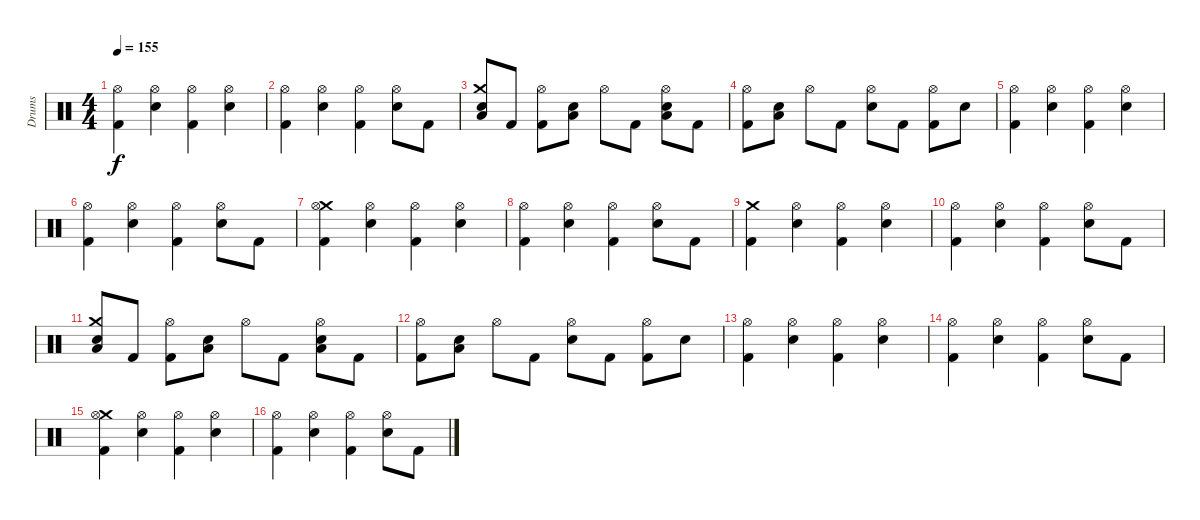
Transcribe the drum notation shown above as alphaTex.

\track ("Drums" "Drums") {instrument percussion}
\staff {score}
\articulation defaults
\ts (4 4)
\tempo 155
\clef neutral
\ks c
("Hi-Hat (open)" "Kick (hit) 2").4{dy f} ("Hi-Hat (open)" "Snare (hit) 2").4 ("Hi-Hat (open)" "Kick (hit) 2").4 ("Hi-Hat (open)" "Snare (hit) 2").4 |
("Hi-Hat (open)" "Kick (hit) 2").4 ("Hi-Hat (open)" "Snare (hit) 2").4 ("Hi-Hat (open)" "Kick (hit) 2").4 ("Hi-Hat (open)" "Snare (hit) 2").8 "Kick (hit) 2".8 |
("Crash medium (hit)" "Snare (hit) 2" "Low Floor Tom (hit)").8 "Kick (hit) 2".8 ("Hi-Hat (open)" "Kick (hit) 2").8 ("Snare (hit) 2" "Low Floor Tom (hit)").8 "Hi-Hat (open)".8 "Kick (hit) 2".8 ("Hi-Hat (open)" "Snare (hit) 2" "Low Floor Tom (hit)").8 "Kick (hit) 2".8 |
("Hi-Hat (open)" "Kick (hit) 2").8 ("Snare (hit) 2" "Low Floor Tom (hit)").8 "Hi-Hat (open)".8 "Kick (hit) 2".8 ("Hi-Hat (open)" "Snare (hit) 2").8 "Kick (hit) 2".8 ("Hi-Hat (open)" "Kick (hit) 2").8 "Snare (hit) 2".8 |
("Hi-Hat (open)" "Kick (hit) 2").4 ("Hi-Hat (open)" "Snare (hit) 2").4 ("Hi-Hat (open)" "Kick (hit) 2").4 ("Hi-Hat (open)" "Snare (hit) 2").4 |
("Hi-Hat (open)" "Kick (hit) 2").4 ("Hi-Hat (open)" "Snare (hit) 2").4 ("Hi-Hat (open)" "Kick (hit) 2").4 ("Hi-Hat (open)" "Snare (hit) 2").8 "Kick (hit) 2".8 |
("Crash medium (hit)" "Hi-Hat (open)" "Kick (hit) 2").4 ("Hi-Hat (open)" "Snare (hit) 2").4 ("Hi-Hat (open)" "Kick (hit) 2").4 ("Hi-Hat (open)" "Snare (hit) 2").4 |
("Hi-Hat (open)" "Kick (hit) 2").4 ("Hi-Hat (open)" "Snare (hit) 2").4 ("Hi-Hat (open)" "Kick (hit) 2").4 ("Hi-Hat (open)" "Snare (hit) 2").8 "Kick (hit) 2".8 |
("Crash medium (hit)" "Kick (hit) 2").4 ("Hi-Hat (open)" "Snare (hit) 2").4 ("Hi-Hat (open)" "Kick (hit) 2").4 ("Hi-Hat (open)" "Snare (hit) 2").4 |
("Hi-Hat (open)" "Kick (hit) 2").4 ("Hi-Hat (open)" "Snare (hit) 2").4 ("Hi-Hat (open)" "Kick (hit) 2").4 ("Hi-Hat (open)" "Snare (hit) 2").8 "Kick (hit) 2".8 |
("Crash medium (hit)" "Snare (hit) 2" "Low Floor Tom (hit)").8 "Kick (hit) 2".8 ("Hi-Hat (open)" "Kick (hit) 2").8 ("Snare (hit) 2" "Low Floor Tom (hit)").8 "Hi-Hat (open)".8 "Kick (hit) 2".8 ("Hi-Hat (open)" "Snare (hit) 2" "Low Floor Tom (hit)").8 "Kick (hit) 2".8 |
("Hi-Hat (open)" "Kick (hit) 2").8 ("Snare (hit) 2" "Low Floor Tom (hit)").8 "Hi-Hat (open)".8 "Kick (hit) 2".8 ("Hi-Hat (open)" "Snare (hit) 2").8 "Kick (hit) 2".8 ("Hi-Hat (open)" "Kick (hit) 2").8 "Snare (hit) 2".8 |
("Hi-Hat (open)" "Kick (hit) 2").4 ("Hi-Hat (open)" "Snare (hit) 2").4 ("Hi-Hat (open)" "Kick (hit) 2").4 ("Hi-Hat (open)" "Snare (hit) 2").4 |
("Hi-Hat (open)" "Kick (hit) 2").4 ("Hi-Hat (open)" "Snare (hit) 2").4 ("Hi-Hat (open)" "Kick (hit) 2").4 ("Hi-Hat (open)" "Snare (hit) 2").8 "Kick (hit) 2".8 |
("Crash medium (hit)" "Hi-Hat (open)" "Kick (hit) 2").4 ("Hi-Hat (open)" "Snare (hit) 2").4 ("Hi-Hat (open)" "Kick (hit) 2").4 ("Hi-Hat (open)" "Snare (hit) 2").4 |
("Hi-Hat (open)" "Kick (hit) 2").4 ("Hi-Hat (open)" "Snare (hit) 2").4 ("Hi-Hat (open)" "Kick (hit) 2").4 ("Hi-Hat (open)" "Snare (hit) 2").8 "Kick (hit) 2".8
